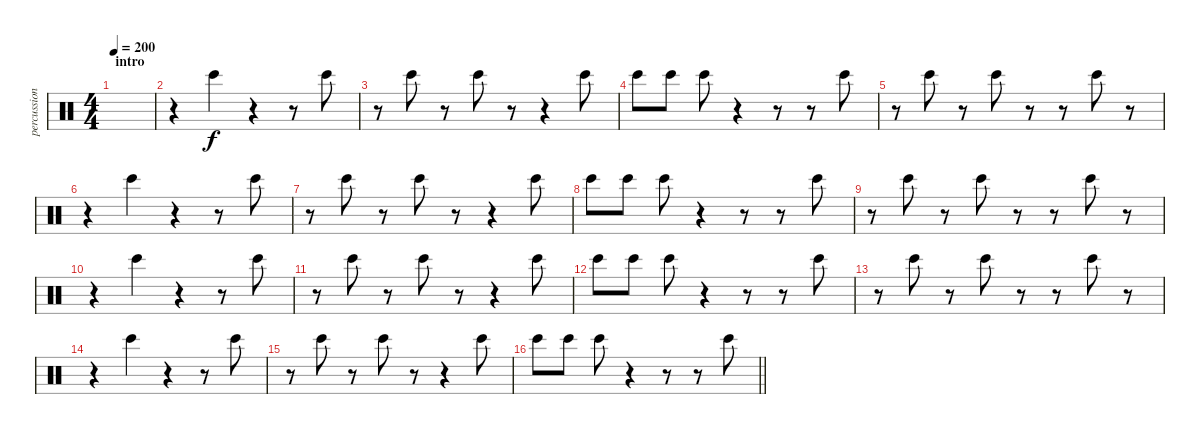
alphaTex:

\track ("percussion" "percussion") {instrument percussion}
\staff {score}
\articulation defaults
\ts (4 4)
\section ("" "intro")
\tempo 200
\clef neutral
\ks c
|
r.4 "Bongo High (hit)".4 r.4 r.8 "Bongo High (hit)".8 |
r.8 "Bongo High (hit)".8 r.8 "Bongo High (hit)".8 r.8 r.4 "Bongo High (hit)".8 |
"Bongo High (hit)".8 "Bongo High (hit)".8 "Bongo High (hit)".8 r.4 r.8 r.8 "Bongo High (hit)".8 |
r.8 "Bongo High (hit)".8 r.8 "Bongo High (hit)".8 r.8 r.8 "Bongo High (hit)".8 r.8 |
r.4 "Bongo High (hit)".4 r.4 r.8 "Bongo High (hit)".8 |
r.8 "Bongo High (hit)".8 r.8 "Bongo High (hit)".8 r.8 r.4 "Bongo High (hit)".8 |
"Bongo High (hit)".8 "Bongo High (hit)".8 "Bongo High (hit)".8 r.4 r.8 r.8 "Bongo High (hit)".8 |
r.8 "Bongo High (hit)".8 r.8 "Bongo High (hit)".8 r.8 r.8 "Bongo High (hit)".8 r.8 |
r.4 "Bongo High (hit)".4 r.4 r.8 "Bongo High (hit)".8 |
r.8 "Bongo High (hit)".8 r.8 "Bongo High (hit)".8 r.8 r.4 "Bongo High (hit)".8 |
"Bongo High (hit)".8 "Bongo High (hit)".8 "Bongo High (hit)".8 r.4 r.8 r.8 "Bongo High (hit)".8 |
r.8 "Bongo High (hit)".8 r.8 "Bongo High (hit)".8 r.8 r.8 "Bongo High (hit)".8 r.8 |
r.4 "Bongo High (hit)".4 r.4 r.8 "Bongo High (hit)".8 |
r.8 "Bongo High (hit)".8 r.8 "Bongo High (hit)".8 r.8 r.4 "Bongo High (hit)".8 |
\barLineRight lightlight "Bongo High (hit)".8 "Bongo High (hit)".8 "Bongo High (hit)".8
r.4 r.8 r.8 "Bongo High (hit)".8
